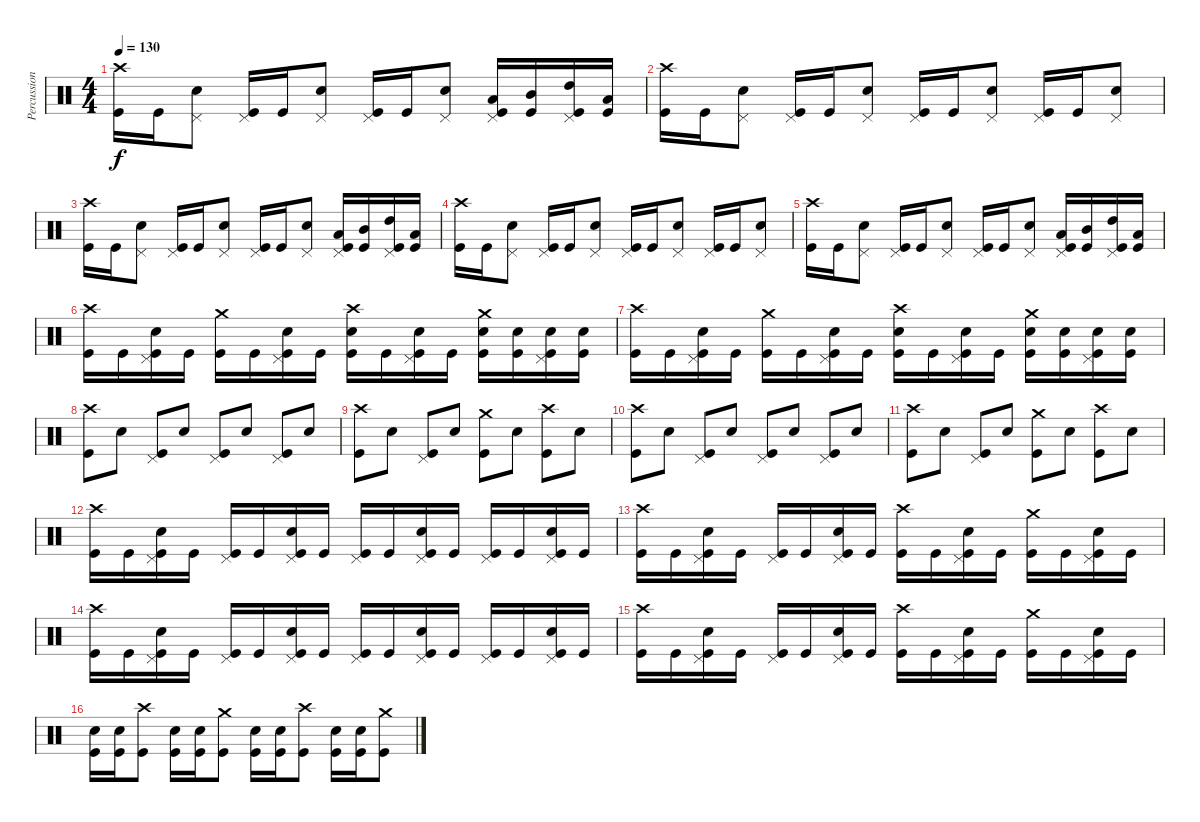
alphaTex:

\track ("Percussion" "Percussion") {instrument percussion}
\staff {score}
\articulation defaults
\ts (4 4)
\tempo 130
\clef neutral
\ks c
("Crash high (hit)" "Kick (hit)").16{dy f} "Kick (hit)".16 ("Pedal Hi-Hat (hit)" "Snare (hit) 2").8 ("Pedal Hi-Hat (hit)" "Kick (hit)").16 "Kick (hit)".16 ("Pedal Hi-Hat (hit)" "Snare (hit) 2").8 ("Pedal Hi-Hat (hit)" "Kick (hit)").16 "Kick (hit)".16 ("Pedal Hi-Hat (hit)" "Snare (hit) 2").8 ("Low Tom (hit)" "Pedal Hi-Hat (hit)" "Kick (hit)").16 ("Mid Tom (hit)" "Kick (hit)").16 ("High Tom (hit)" "Pedal Hi-Hat (hit)" "Kick (hit)").16 ("Low Tom (hit)" "Kick (hit)").16 |
("Crash high (hit)" "Kick (hit)").16 "Kick (hit)".16 ("Pedal Hi-Hat (hit)" "Snare (hit) 2").8 ("Pedal Hi-Hat (hit)" "Kick (hit)").16 "Kick (hit)".16 ("Pedal Hi-Hat (hit)" "Snare (hit) 2").8 ("Pedal Hi-Hat (hit)" "Kick (hit)").16 "Kick (hit)".16 ("Pedal Hi-Hat (hit)" "Snare (hit) 2").8 ("Pedal Hi-Hat (hit)" "Kick (hit)").16 "Kick (hit)".16 ("Pedal Hi-Hat (hit)" "Snare (hit) 2").8 |
("Crash high (hit)" "Kick (hit)").16 "Kick (hit)".16 ("Pedal Hi-Hat (hit)" "Snare (hit) 2").8 ("Pedal Hi-Hat (hit)" "Kick (hit)").16 "Kick (hit)".16 ("Pedal Hi-Hat (hit)" "Snare (hit) 2").8 ("Pedal Hi-Hat (hit)" "Kick (hit)").16 "Kick (hit)".16 ("Pedal Hi-Hat (hit)" "Snare (hit) 2").8 ("Low Tom (hit)" "Pedal Hi-Hat (hit)" "Kick (hit)").16 ("Mid Tom (hit)" "Kick (hit)").16 ("High Tom (hit)" "Pedal Hi-Hat (hit)" "Kick (hit)").16 ("Low Tom (hit)" "Kick (hit)").16 |
("Crash high (hit)" "Kick (hit)").16 "Kick (hit)".16 ("Pedal Hi-Hat (hit)" "Snare (hit) 2").8 ("Pedal Hi-Hat (hit)" "Kick (hit)").16 "Kick (hit)".16 ("Pedal Hi-Hat (hit)" "Snare (hit) 2").8 ("Pedal Hi-Hat (hit)" "Kick (hit)").16 "Kick (hit)".16 ("Pedal Hi-Hat (hit)" "Snare (hit) 2").8 ("Pedal Hi-Hat (hit)" "Kick (hit)").16 "Kick (hit)".16 ("Pedal Hi-Hat (hit)" "Snare (hit) 2").8 |
("Crash high (hit)" "Kick (hit)").16 "Kick (hit)".16 ("Pedal Hi-Hat (hit)" "Snare (hit) 2").8 ("Pedal Hi-Hat (hit)" "Kick (hit)").16 "Kick (hit)".16 ("Pedal Hi-Hat (hit)" "Snare (hit) 2").8 ("Pedal Hi-Hat (hit)" "Kick (hit)").16 "Kick (hit)".16 ("Pedal Hi-Hat (hit)" "Snare (hit) 2").8 ("Low Tom (hit)" "Pedal Hi-Hat (hit)" "Kick (hit)").16 ("Mid Tom (hit)" "Kick (hit)").16 ("High Tom (hit)" "Pedal Hi-Hat (hit)" "Kick (hit)").16 ("Low Tom (hit)" "Kick (hit)").16 |
("Crash high (hit)" "Kick (hit)").16 "Kick (hit)".16 ("Pedal Hi-Hat (hit)" "Snare (hit) 2" "Kick (hit)").16 "Kick (hit)".16 ("Crash medium (hit)" "Kick (hit)").16 "Kick (hit)".16 ("Pedal Hi-Hat (hit)" "Snare (hit) 2" "Kick (hit)").16 "Kick (hit)".16 ("Crash high (hit)" "Snare (hit) 2" "Kick (hit)").16 "Kick (hit)".16 ("Pedal Hi-Hat (hit)" "Snare (hit) 2" "Kick (hit)").16 "Kick (hit)".16 ("Crash medium (hit)" "Snare (hit) 2" "Kick (hit)").16 ("Snare (hit) 2" "Kick (hit)").16 ("Pedal Hi-Hat (hit)" "Snare (hit) 2" "Kick (hit)").16 ("Snare (hit) 2" "Kick (hit)").16 |
("Crash high (hit)" "Kick (hit)").16 "Kick (hit)".16 ("Pedal Hi-Hat (hit)" "Snare (hit) 2" "Kick (hit)").16 "Kick (hit)".16 ("Crash medium (hit)" "Kick (hit)").16 "Kick (hit)".16 ("Pedal Hi-Hat (hit)" "Snare (hit) 2" "Kick (hit)").16 "Kick (hit)".16 ("Crash high (hit)" "Snare (hit) 2" "Kick (hit)").16 "Kick (hit)".16 ("Pedal Hi-Hat (hit)" "Snare (hit) 2" "Kick (hit)").16 "Kick (hit)".16 ("Crash medium (hit)" "Snare (hit) 2" "Kick (hit)").16 ("Snare (hit) 2" "Kick (hit)").16 ("Pedal Hi-Hat (hit)" "Snare (hit) 2" "Kick (hit)").16 ("Snare (hit) 2" "Kick (hit)").16 |
("Crash high (hit)" "Kick (hit)").8 "Snare (hit) 2".8 ("Pedal Hi-Hat (hit)" "Kick (hit)").8 "Snare (hit) 2".8 ("Pedal Hi-Hat (hit)" "Kick (hit)").8 "Snare (hit) 2".8 ("Pedal Hi-Hat (hit)" "Kick (hit)").8 "Snare (hit) 2".8 |
("Crash high (hit)" "Kick (hit)").8 "Snare (hit) 2".8 ("Pedal Hi-Hat (hit)" "Kick (hit)").8 "Snare (hit) 2".8 ("Crash medium (hit)" "Kick (hit)").8 "Snare (hit) 2".8 ("Crash high (hit)" "Kick (hit)").8 "Snare (hit) 2".8 |
("Crash high (hit)" "Kick (hit)").8 "Snare (hit) 2".8 ("Pedal Hi-Hat (hit)" "Kick (hit)").8 "Snare (hit) 2".8 ("Pedal Hi-Hat (hit)" "Kick (hit)").8 "Snare (hit) 2".8 ("Pedal Hi-Hat (hit)" "Kick (hit)").8 "Snare (hit) 2".8 |
("Crash high (hit)" "Kick (hit)").8 "Snare (hit) 2".8 ("Pedal Hi-Hat (hit)" "Kick (hit)").8 "Snare (hit) 2".8 ("Crash medium (hit)" "Kick (hit)").8 "Snare (hit) 2".8 ("Crash high (hit)" "Kick (hit)").8 "Snare (hit) 2".8 |
("Crash high (hit)" "Kick (hit)").16 "Kick (hit)".16 ("Pedal Hi-Hat (hit)" "Snare (hit) 2" "Kick (hit)").16 "Kick (hit)".16 ("Pedal Hi-Hat (hit)" "Kick (hit)").16 "Kick (hit)".16 ("Pedal Hi-Hat (hit)" "Snare (hit) 2" "Kick (hit)").16 "Kick (hit)".16 ("Pedal Hi-Hat (hit)" "Kick (hit)").16 "Kick (hit)".16 ("Pedal Hi-Hat (hit)" "Snare (hit) 2" "Kick (hit)").16 "Kick (hit)".16 ("Pedal Hi-Hat (hit)" "Kick (hit)").16 "Kick (hit)".16 ("Pedal Hi-Hat (hit)" "Snare (hit) 2" "Kick (hit)").16 "Kick (hit)".16 |
("Crash high (hit)" "Kick (hit)").16 "Kick (hit)".16 ("Pedal Hi-Hat (hit)" "Snare (hit) 2" "Kick (hit)").16 "Kick (hit)".16 ("Pedal Hi-Hat (hit)" "Kick (hit)").16 "Kick (hit)".16 ("Pedal Hi-Hat (hit)" "Snare (hit) 2" "Kick (hit)").16 "Kick (hit)".16 ("Crash high (hit)" "Kick (hit)").16 "Kick (hit)".16 ("Pedal Hi-Hat (hit)" "Snare (hit) 2" "Kick (hit)").16 "Kick (hit)".16 ("Crash medium (hit)" "Kick (hit)").16 "Kick (hit)".16 ("Pedal Hi-Hat (hit)" "Snare (hit) 2" "Kick (hit)").16 "Kick (hit)".16 |
("Crash high (hit)" "Kick (hit)").16 "Kick (hit)".16 ("Pedal Hi-Hat (hit)" "Snare (hit) 2" "Kick (hit)").16 "Kick (hit)".16 ("Pedal Hi-Hat (hit)" "Kick (hit)").16 "Kick (hit)".16 ("Pedal Hi-Hat (hit)" "Snare (hit) 2" "Kick (hit)").16 "Kick (hit)".16 ("Pedal Hi-Hat (hit)" "Kick (hit)").16 "Kick (hit)".16 ("Pedal Hi-Hat (hit)" "Snare (hit) 2" "Kick (hit)").16 "Kick (hit)".16 ("Pedal Hi-Hat (hit)" "Kick (hit)").16 "Kick (hit)".16 ("Pedal Hi-Hat (hit)" "Snare (hit) 2" "Kick (hit)").16 "Kick (hit)".16 |
("Crash high (hit)" "Kick (hit)").16 "Kick (hit)".16 ("Pedal Hi-Hat (hit)" "Snare (hit) 2" "Kick (hit)").16 "Kick (hit)".16 ("Pedal Hi-Hat (hit)" "Kick (hit)").16 "Kick (hit)".16 ("Pedal Hi-Hat (hit)" "Snare (hit) 2" "Kick (hit)").16 "Kick (hit)".16 ("Crash high (hit)" "Kick (hit)").16 "Kick (hit)".16 ("Pedal Hi-Hat (hit)" "Snare (hit) 2" "Kick (hit)").16 "Kick (hit)".16 ("Crash medium (hit)" "Kick (hit)").16 "Kick (hit)".16 ("Pedal Hi-Hat (hit)" "Snare (hit) 2" "Kick (hit)").16 "Kick (hit)".16 |
("Snare (hit) 2" "Kick (hit)").16 ("Snare (hit) 2" "Kick (hit)").16 ("Crash high (hit)" "Kick (hit)").8 ("Snare (hit) 2" "Kick (hit)").16 ("Snare (hit) 2" "Kick (hit)").16 ("Crash medium (hit)" "Kick (hit)").8 ("Snare (hit) 2" "Kick (hit)").16 ("Snare (hit) 2" "Kick (hit)").16 ("Crash high (hit)" "Kick (hit)").8 ("Snare (hit) 2" "Kick (hit)").16 ("Snare (hit) 2" "Kick (hit)").16 ("Crash medium (hit)" "Kick (hit)").8
